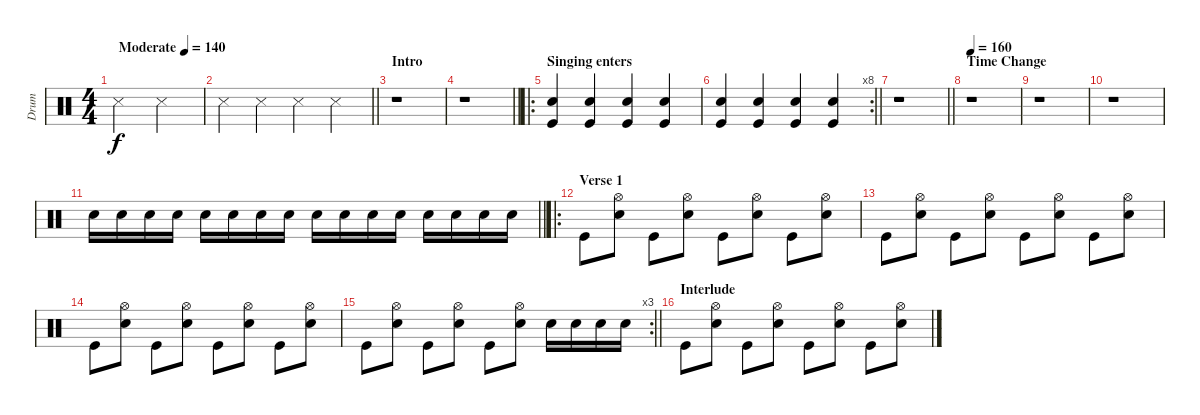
\track ("Drum" "Drum") {instrument percussion}
\staff {score}
\articulation defaults
\ts (4 4)
\tempo (140 "Moderate")
\clef neutral
\ks c "Metronome (hit)".2{dy f} "Metronome (hit)".2
|
\barLineRight lightlight "Metronome (hit)".4 "Metronome (hit)".4 "Metronome (hit)".4 "Metronome (hit)".4
|
\section ("" "Intro")
r.1 |
\barLineRight lightlight
r.1 |
\ro
\section ("" "Singing enters")
("Electric Snare (hit)" "Kick (hit)").4 ("Electric Snare (hit)" "Kick (hit)").4 ("Electric Snare (hit)" "Kick (hit)").4 ("Electric Snare (hit)" "Kick (hit)").4 |
\rc 8
\barLineRight lightlight
("Electric Snare (hit)" "Kick (hit)").4 ("Electric Snare (hit)" "Kick (hit)").4 ("Electric Snare (hit)" "Kick (hit)").4 ("Electric Snare (hit)" "Kick (hit)").4 |
\barLineRight lightlight
r.1 |
\section ("" "Time Change")
\tempo 160
r.1 |
r.1 |
r.1 |
\barLineRight lightlight "Electric Snare (hit)".16 "Electric Snare (hit)".16 "Electric Snare (hit)".16 "Electric Snare (hit)".16 "Electric Snare (hit)".16 "Electric Snare (hit)".16 "Electric Snare (hit)".16 "Electric Snare (hit)".16 "Electric Snare (hit)".16 "Electric Snare (hit)".16 "Electric Snare (hit)".16 "Electric Snare (hit)".16 "Electric Snare (hit)".16 "Electric Snare (hit)".16 "Electric Snare (hit)".16 "Electric Snare (hit)".16
|
\ro
\section ("" "Verse 1")
"Kick (hit)".8 ("Hi-Hat (open)" "Electric Snare (hit)").8 "Kick (hit)".8 ("Hi-Hat (open)" "Electric Snare (hit)").8 "Kick (hit)".8 ("Hi-Hat (open)" "Electric Snare (hit)").8 "Kick (hit)".8 ("Hi-Hat (open)" "Electric Snare (hit)").8 |
"Kick (hit)".8 ("Hi-Hat (open)" "Electric Snare (hit)").8 "Kick (hit)".8 ("Hi-Hat (open)" "Electric Snare (hit)").8 "Kick (hit)".8 ("Hi-Hat (open)" "Electric Snare (hit)").8 "Kick (hit)".8 ("Hi-Hat (open)" "Electric Snare (hit)").8 |
"Kick (hit)".8 ("Hi-Hat (open)" "Electric Snare (hit)").8 "Kick (hit)".8 ("Hi-Hat (open)" "Electric Snare (hit)").8 "Kick (hit)".8 ("Hi-Hat (open)" "Electric Snare (hit)").8 "Kick (hit)".8 ("Hi-Hat (open)" "Electric Snare (hit)").8 |
\rc 3
\barLineRight lightlight "Kick (hit)".8
("Hi-Hat (open)" "Electric Snare (hit)").8 "Kick (hit)".8 ("Hi-Hat (open)" "Electric Snare (hit)").8 "Kick (hit)".8 ("Hi-Hat (open)" "Electric Snare (hit)").8 "Electric Snare (hit)".16 "Electric Snare (hit)".16 "Electric Snare (hit)".16 "Electric Snare (hit)".16 |
\section ("" "Interlude")
"Kick (hit)".8 ("Hi-Hat (open)" "Electric Snare (hit)").8 "Kick (hit)".8 ("Hi-Hat (open)" "Electric Snare (hit)").8 "Kick (hit)".8 ("Hi-Hat (open)" "Electric Snare (hit)").8 "Kick (hit)".8 ("Hi-Hat (open)" "Electric Snare (hit)").8
